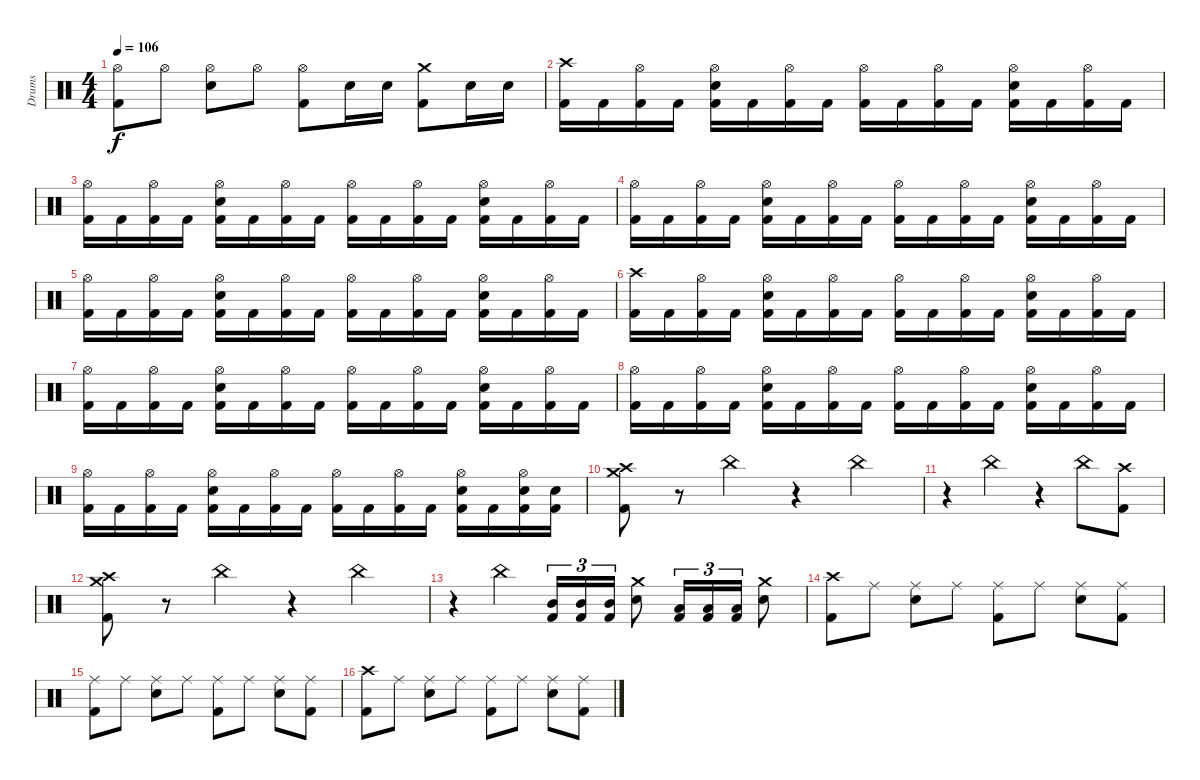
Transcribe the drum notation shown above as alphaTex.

\track ("Drums" "Drums") {instrument percussion}
\staff {score}
\articulation defaults
\ts (4 4)
\tempo 106
\clef neutral
\ks c
("Hi-Hat (open)" "Kick (hit) 2").8{dy f} "Hi-Hat (open)".8 ("Hi-Hat (open)" "Electric Snare (hit)").8 "Hi-Hat (open)".8 ("Hi-Hat (open)" "Kick (hit) 2").8 "Electric Snare (hit)".16 "Electric Snare (hit)".16 ("Crash medium (hit)" "Kick (hit) 2").8 "Electric Snare (hit)".16 "Electric Snare (hit)".16 |
("Crash high (hit)" "Kick (hit) 2").16 "Kick (hit) 2".16 ("Hi-Hat (open)" "Kick (hit) 2").16 "Kick (hit) 2".16 ("Hi-Hat (open)" "Electric Snare (hit)" "Kick (hit) 2").16 "Kick (hit) 2".16 ("Hi-Hat (open)" "Kick (hit) 2").16 "Kick (hit) 2".16 ("Hi-Hat (open)" "Kick (hit) 2").16 "Kick (hit) 2".16 ("Hi-Hat (open)" "Kick (hit) 2").16 "Kick (hit) 2".16 ("Hi-Hat (open)" "Electric Snare (hit)" "Kick (hit) 2").16 "Kick (hit) 2".16 ("Hi-Hat (open)" "Kick (hit) 2").16 "Kick (hit) 2".16 |
("Hi-Hat (open)" "Kick (hit) 2").16 "Kick (hit) 2".16 ("Hi-Hat (open)" "Kick (hit) 2").16 "Kick (hit) 2".16 ("Hi-Hat (open)" "Electric Snare (hit)" "Kick (hit) 2").16 "Kick (hit) 2".16 ("Hi-Hat (open)" "Kick (hit) 2").16 "Kick (hit) 2".16 ("Hi-Hat (open)" "Kick (hit) 2").16 "Kick (hit) 2".16 ("Hi-Hat (open)" "Kick (hit) 2").16 "Kick (hit) 2".16 ("Hi-Hat (open)" "Electric Snare (hit)" "Kick (hit) 2").16 "Kick (hit) 2".16 ("Hi-Hat (open)" "Kick (hit) 2").16 "Kick (hit) 2".16 |
("Hi-Hat (open)" "Kick (hit) 2").16 "Kick (hit) 2".16 ("Hi-Hat (open)" "Kick (hit) 2").16 "Kick (hit) 2".16 ("Hi-Hat (open)" "Electric Snare (hit)" "Kick (hit) 2").16 "Kick (hit) 2".16 ("Hi-Hat (open)" "Kick (hit) 2").16 "Kick (hit) 2".16 ("Hi-Hat (open)" "Kick (hit) 2").16 "Kick (hit) 2".16 ("Hi-Hat (open)" "Kick (hit) 2").16 "Kick (hit) 2".16 ("Hi-Hat (open)" "Electric Snare (hit)" "Kick (hit) 2").16 "Kick (hit) 2".16 ("Hi-Hat (open)" "Kick (hit) 2").16 "Kick (hit) 2".16 |
("Hi-Hat (open)" "Kick (hit) 2").16 "Kick (hit) 2".16 ("Hi-Hat (open)" "Kick (hit) 2").16 "Kick (hit) 2".16 ("Hi-Hat (open)" "Electric Snare (hit)" "Kick (hit) 2").16 "Kick (hit) 2".16 ("Hi-Hat (open)" "Kick (hit) 2").16 "Kick (hit) 2".16 ("Hi-Hat (open)" "Kick (hit) 2").16 "Kick (hit) 2".16 ("Hi-Hat (open)" "Kick (hit) 2").16 "Kick (hit) 2".16 ("Hi-Hat (open)" "Electric Snare (hit)" "Kick (hit) 2").16 "Kick (hit) 2".16 ("Hi-Hat (open)" "Kick (hit) 2").16 "Kick (hit) 2".16 |
("Crash high (hit)" "Kick (hit) 2").16 "Kick (hit) 2".16 ("Hi-Hat (open)" "Kick (hit) 2").16 "Kick (hit) 2".16 ("Hi-Hat (open)" "Electric Snare (hit)" "Kick (hit) 2").16 "Kick (hit) 2".16 ("Hi-Hat (open)" "Kick (hit) 2").16 "Kick (hit) 2".16 ("Hi-Hat (open)" "Kick (hit) 2").16 "Kick (hit) 2".16 ("Hi-Hat (open)" "Kick (hit) 2").16 "Kick (hit) 2".16 ("Hi-Hat (open)" "Electric Snare (hit)" "Kick (hit) 2").16 "Kick (hit) 2".16 ("Hi-Hat (open)" "Kick (hit) 2").16 "Kick (hit) 2".16 |
("Hi-Hat (open)" "Kick (hit) 2").16 "Kick (hit) 2".16 ("Hi-Hat (open)" "Kick (hit) 2").16 "Kick (hit) 2".16 ("Hi-Hat (open)" "Electric Snare (hit)" "Kick (hit) 2").16 "Kick (hit) 2".16 ("Hi-Hat (open)" "Kick (hit) 2").16 "Kick (hit) 2".16 ("Hi-Hat (open)" "Kick (hit) 2").16 "Kick (hit) 2".16 ("Hi-Hat (open)" "Kick (hit) 2").16 "Kick (hit) 2".16 ("Hi-Hat (open)" "Electric Snare (hit)" "Kick (hit) 2").16 "Kick (hit) 2".16 ("Hi-Hat (open)" "Kick (hit) 2").16 "Kick (hit) 2".16 |
("Hi-Hat (open)" "Kick (hit) 2").16 "Kick (hit) 2".16 ("Hi-Hat (open)" "Kick (hit) 2").16 "Kick (hit) 2".16 ("Hi-Hat (open)" "Electric Snare (hit)" "Kick (hit) 2").16 "Kick (hit) 2".16 ("Hi-Hat (open)" "Kick (hit) 2").16 "Kick (hit) 2".16 ("Hi-Hat (open)" "Kick (hit) 2").16 "Kick (hit) 2".16 ("Hi-Hat (open)" "Kick (hit) 2").16 "Kick (hit) 2".16 ("Hi-Hat (open)" "Electric Snare (hit)" "Kick (hit) 2").16 "Kick (hit) 2".16 ("Hi-Hat (open)" "Kick (hit) 2").16 "Kick (hit) 2".16 |
("Hi-Hat (open)" "Kick (hit) 2").16 "Kick (hit) 2".16 ("Hi-Hat (open)" "Kick (hit) 2").16 "Kick (hit) 2".16 ("Hi-Hat (open)" "Electric Snare (hit)" "Kick (hit) 2").16 "Kick (hit) 2".16 ("Hi-Hat (open)" "Kick (hit) 2").16 "Kick (hit) 2".16 ("Hi-Hat (open)" "Kick (hit) 2").16 "Kick (hit) 2".16 ("Hi-Hat (open)" "Kick (hit) 2").16 "Kick (hit) 2".16 ("Hi-Hat (open)" "Electric Snare (hit)" "Kick (hit) 2").16 "Kick (hit) 2".16 ("Hi-Hat (open)" "Electric Snare (hit)" "Kick (hit) 2").16 ("Electric Snare (hit)" "Kick (hit) 2").16 |
("Crash medium (hit)" "Crash high (hit)" "Kick (hit) 2").8 r.8 "China (hit)".4 r.4 "China (hit)".4 |
r.4 "China (hit)".4 r.4 "China (hit)".8 ("Crash high (hit)" "Kick (hit) 2").8 |
("Crash medium (hit)" "Crash high (hit)" "Kick (hit) 2").8 r.8 "China (hit)".4 r.4 "China (hit)".4 |
r.4 "China (hit)".4 ("Mid Tom (hit)" "Kick (hit) 2").16{tu (3 2)} ("Mid Tom (hit)" "Kick (hit) 2").16{tu (3 2)} ("Mid Tom (hit)" "Kick (hit) 2").16{tu (3 2)} ("Crash medium (hit)" "Electric Snare (hit)").8 ("Low Tom (hit)" "Kick (hit) 2").16{tu (3 2)} ("Low Tom (hit)" "Kick (hit) 2").16{tu (3 2)} ("Low Tom (hit)" "Kick (hit) 2").16{tu (3 2)} ("Crash medium (hit)" "Electric Snare (hit)").8 |
("Crash high (hit)" "Kick (hit) 2").8 "Ride (middle)".8 ("Ride (middle)" "Electric Snare (hit)").8 "Ride (middle)".8 ("Ride (middle)" "Kick (hit) 2").8 "Ride (middle)".8 ("Ride (middle)" "Electric Snare (hit)").8 ("Ride (middle)" "Kick (hit) 2").8 |
("Ride (middle)" "Kick (hit) 2").8 "Ride (middle)".8 ("Ride (middle)" "Electric Snare (hit)").8 "Ride (middle)".8 ("Ride (middle)" "Kick (hit) 2").8 "Ride (middle)".8 ("Ride (middle)" "Electric Snare (hit)").8 ("Ride (middle)" "Kick (hit) 2").8 |
("Crash high (hit)" "Kick (hit) 2").8 "Ride (middle)".8 ("Ride (middle)" "Electric Snare (hit)").8 "Ride (middle)".8 ("Ride (middle)" "Kick (hit) 2").8 "Ride (middle)".8 ("Ride (middle)" "Electric Snare (hit)").8 ("Ride (middle)" "Kick (hit) 2").8
